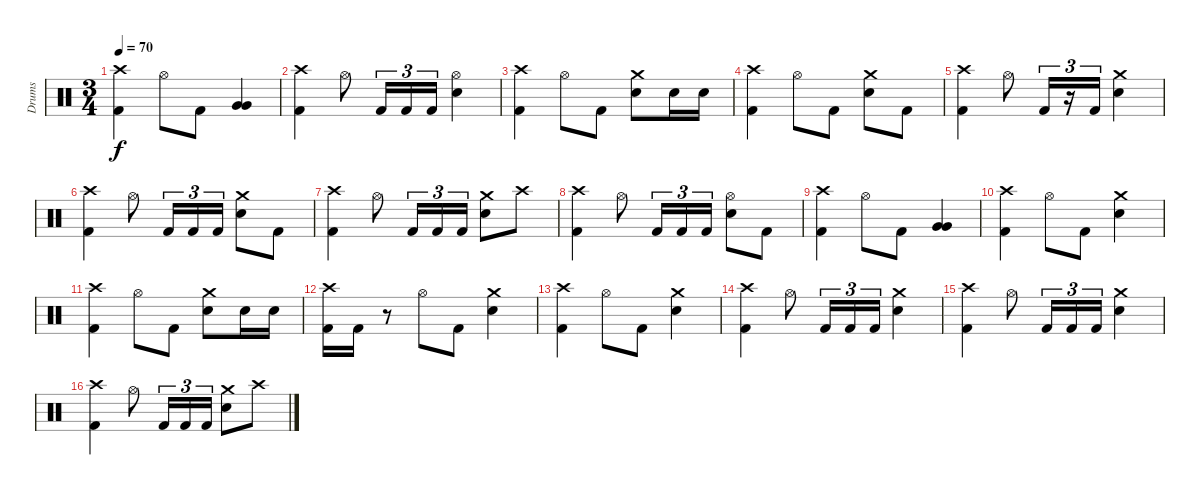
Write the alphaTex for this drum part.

\track ("Drums" "Drums") {instrument percussion}
\staff {score}
\articulation defaults
\ts (3 4)
\tempo 70
\clef neutral
\ks c
("Crash high (hit)" "Kick (hit) 2").4{dy f} "Hi-Hat (open)".8 "Kick (hit) 2".8 ("Very Low Tom (hit)" "Very Low Tom (hit)").4 |
("Crash high (hit)" "Kick (hit) 2").4 "Hi-Hat (open)".8 "Kick (hit) 2".16{tu (3 2)} "Kick (hit) 2".16{tu (3 2)} "Kick (hit) 2".16{tu (3 2)} ("Hi-Hat (open)" "Electric Snare (hit)").4 |
("Crash high (hit)" "Kick (hit) 2").4 "Hi-Hat (open)".8 "Kick (hit) 2".8 ("Crash medium (hit)" "Electric Snare (hit)").8 "Electric Snare (hit)".16 "Electric Snare (hit)".16 |
("Crash high (hit)" "Kick (hit) 2").4 "Hi-Hat (open)".8 "Kick (hit) 2".8 ("Crash medium (hit)" "Electric Snare (hit)").8 "Kick (hit) 2".8 |
("Crash high (hit)" "Kick (hit) 2").4 "Hi-Hat (open)".8 "Kick (hit) 2".16{tu (3 2)} r.16{tu (3 2)} "Kick (hit) 2".16{tu (3 2)} ("Crash medium (hit)" "Electric Snare (hit)").4 |
("Crash high (hit)" "Kick (hit) 2").4 "Hi-Hat (open)".8 "Kick (hit) 2".16{tu (3 2)} "Kick (hit) 2".16{tu (3 2)} "Kick (hit) 2".16{tu (3 2)} ("Crash medium (hit)" "Electric Snare (hit)").8 "Kick (hit) 2".8 |
("Crash high (hit)" "Kick (hit) 2").4 "Hi-Hat (open)".8 "Kick (hit) 2".16{tu (3 2)} "Kick (hit) 2".16{tu (3 2)} "Kick (hit) 2".16{tu (3 2)} ("Crash medium (hit)" "Electric Snare (hit)").8 "Crash high (hit)".8 |
("Crash high (hit)" "Kick (hit) 2").4 "Hi-Hat (open)".8 "Kick (hit) 2".16{tu (3 2)} "Kick (hit) 2".16{tu (3 2)} "Kick (hit) 2".16{tu (3 2)} ("Hi-Hat (open)" "Electric Snare (hit)").8 "Kick (hit) 2".8 |
("Crash high (hit)" "Kick (hit) 2").4 "Hi-Hat (open)".8 "Kick (hit) 2".8 ("Very Low Tom (hit)" "Very Low Tom (hit)").4 |
("Crash high (hit)" "Kick (hit) 2").4 "Hi-Hat (open)".8 "Kick (hit) 2".8 ("Crash medium (hit)" "Electric Snare (hit)").4 |
("Crash high (hit)" "Kick (hit) 2").4 "Hi-Hat (open)".8 "Kick (hit) 2".8 ("Crash medium (hit)" "Electric Snare (hit)").8 "Electric Snare (hit)".16 "Electric Snare (hit)".16 |
("Crash high (hit)" "Kick (hit) 2").16 "Kick (hit) 2".16 r.8 "Hi-Hat (open)".8 "Kick (hit) 2".8 ("Crash medium (hit)" "Electric Snare (hit)").4 |
("Crash high (hit)" "Kick (hit) 2").4 "Hi-Hat (open)".8 "Kick (hit) 2".8 ("Crash medium (hit)" "Electric Snare (hit)").4 |
("Crash high (hit)" "Kick (hit) 2").4 "Hi-Hat (open)".8 "Kick (hit) 2".16{tu (3 2)} "Kick (hit) 2".16{tu (3 2)} "Kick (hit) 2".16{tu (3 2)} ("Crash medium (hit)" "Electric Snare (hit)").4 |
("Crash high (hit)" "Kick (hit) 2").4 "Hi-Hat (open)".8 "Kick (hit) 2".16{tu (3 2)} "Kick (hit) 2".16{tu (3 2)} "Kick (hit) 2".16{tu (3 2)} ("Crash medium (hit)" "Electric Snare (hit)").4 |
("Crash high (hit)" "Kick (hit) 2").4 "Hi-Hat (open)".8 "Kick (hit) 2".16{tu (3 2)} "Kick (hit) 2".16{tu (3 2)} "Kick (hit) 2".16{tu (3 2)} ("Crash medium (hit)" "Electric Snare (hit)").8 "Crash high (hit)".8
